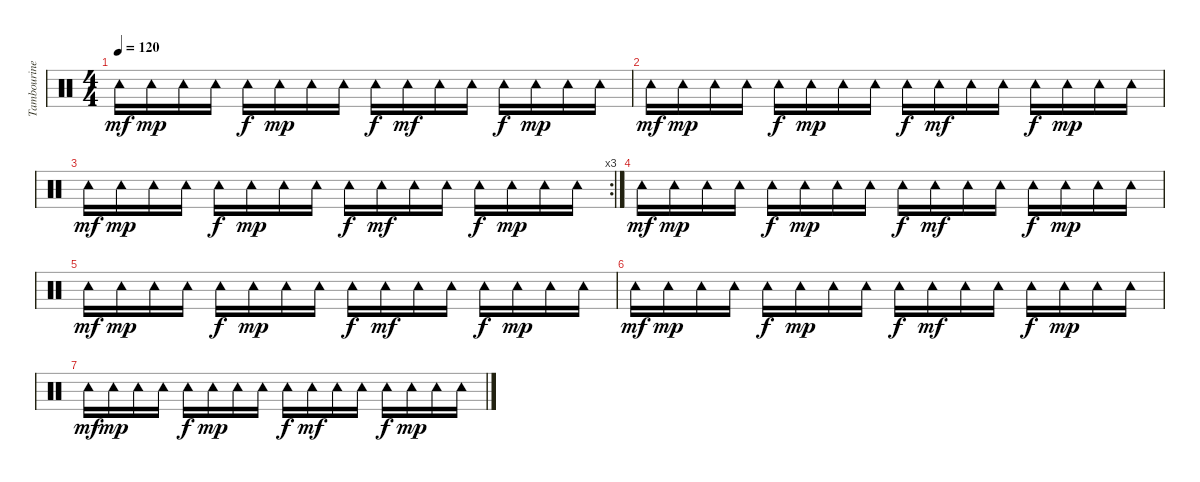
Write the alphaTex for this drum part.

\track ("Tambourine Fills" "Tambourine") {instrument percussion}
\staff {score}
\articulation defaults
\ts (4 4)
\tempo 120
\clef neutral
\ks c "Tambourine (hit)".16{dy mf} "Tambourine (hit)".16{dy mp} "Tambourine (hit)".16 "Tambourine (hit)".16 "Tambourine (hit)".16{dy f} "Tambourine (hit)".16{dy mp} "Tambourine (hit)".16 "Tambourine (hit)".16 "Tambourine (hit)".16{dy f} "Tambourine (hit)".16{dy mf} "Tambourine (hit)".16 "Tambourine (hit)".16 "Tambourine (hit)".16{dy f} "Tambourine (hit)".16{dy mp} "Tambourine (hit)".16 "Tambourine (hit)".16
|
"Tambourine (hit)".16{dy mf} "Tambourine (hit)".16{dy mp} "Tambourine (hit)".16 "Tambourine (hit)".16 "Tambourine (hit)".16{dy f} "Tambourine (hit)".16{dy mp} "Tambourine (hit)".16 "Tambourine (hit)".16 "Tambourine (hit)".16{dy f} "Tambourine (hit)".16{dy mf} "Tambourine (hit)".16 "Tambourine (hit)".16 "Tambourine (hit)".16{dy f} "Tambourine (hit)".16{dy mp} "Tambourine (hit)".16 "Tambourine (hit)".16 |
\rc 3 "Tambourine (hit)".16{dy mf} "Tambourine (hit)".16{dy mp} "Tambourine (hit)".16 "Tambourine (hit)".16 "Tambourine (hit)".16{dy f} "Tambourine (hit)".16{dy mp} "Tambourine (hit)".16 "Tambourine (hit)".16 "Tambourine (hit)".16{dy f} "Tambourine (hit)".16{dy mf} "Tambourine (hit)".16 "Tambourine (hit)".16 "Tambourine (hit)".16{dy f} "Tambourine (hit)".16{dy mp} "Tambourine (hit)".16 "Tambourine (hit)".16
|
"Tambourine (hit)".16{dy mf} "Tambourine (hit)".16{dy mp} "Tambourine (hit)".16 "Tambourine (hit)".16 "Tambourine (hit)".16{dy f} "Tambourine (hit)".16{dy mp} "Tambourine (hit)".16 "Tambourine (hit)".16 "Tambourine (hit)".16{dy f} "Tambourine (hit)".16{dy mf} "Tambourine (hit)".16 "Tambourine (hit)".16 "Tambourine (hit)".16{dy f} "Tambourine (hit)".16{dy mp} "Tambourine (hit)".16 "Tambourine (hit)".16 |
"Tambourine (hit)".16{dy mf} "Tambourine (hit)".16{dy mp} "Tambourine (hit)".16 "Tambourine (hit)".16 "Tambourine (hit)".16{dy f} "Tambourine (hit)".16{dy mp} "Tambourine (hit)".16 "Tambourine (hit)".16 "Tambourine (hit)".16{dy f} "Tambourine (hit)".16{dy mf} "Tambourine (hit)".16 "Tambourine (hit)".16 "Tambourine (hit)".16{dy f} "Tambourine (hit)".16{dy mp} "Tambourine (hit)".16 "Tambourine (hit)".16 |
"Tambourine (hit)".16{dy mf} "Tambourine (hit)".16{dy mp} "Tambourine (hit)".16 "Tambourine (hit)".16 "Tambourine (hit)".16{dy f} "Tambourine (hit)".16{dy mp} "Tambourine (hit)".16 "Tambourine (hit)".16 "Tambourine (hit)".16{dy f} "Tambourine (hit)".16{dy mf} "Tambourine (hit)".16 "Tambourine (hit)".16 "Tambourine (hit)".16{dy f} "Tambourine (hit)".16{dy mp} "Tambourine (hit)".16 "Tambourine (hit)".16 |
"Tambourine (hit)".16{dy mf} "Tambourine (hit)".16{dy mp} "Tambourine (hit)".16 "Tambourine (hit)".16 "Tambourine (hit)".16{dy f} "Tambourine (hit)".16{dy mp} "Tambourine (hit)".16 "Tambourine (hit)".16 "Tambourine (hit)".16{dy f} "Tambourine (hit)".16{dy mf} "Tambourine (hit)".16 "Tambourine (hit)".16 "Tambourine (hit)".16{dy f} "Tambourine (hit)".16{dy mp} "Tambourine (hit)".16 "Tambourine (hit)".16
